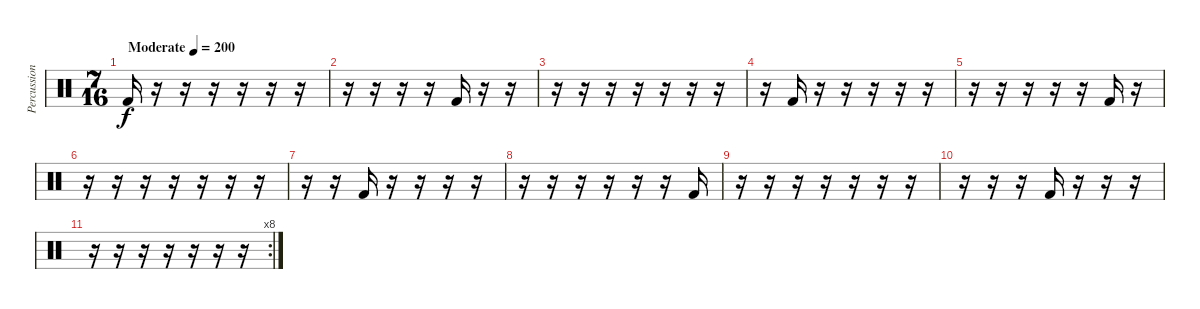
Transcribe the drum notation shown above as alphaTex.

\track ("Percussion" "Percussion") {instrument percussion}
\staff {score}
\articulation defaults
\ts (7 16)
\tempo (200 "Moderate")
\clef neutral
\ks c "Kick (hit) 2".16{dy f}
r.16 r.16 r.16 r.16 r.16 r.16 |
r.16 r.16 r.16 r.16 "Kick (hit) 2".16 r.16 r.16 |
r.16 r.16 r.16 r.16 r.16 r.16 r.16 |
r.16 "Kick (hit) 2".16 r.16 r.16 r.16 r.16 r.16 |
r.16 r.16 r.16 r.16 r.16 "Kick (hit) 2".16 r.16 |
r.16 r.16 r.16 r.16 r.16 r.16 r.16 |
r.16 r.16 "Kick (hit) 2".16 r.16 r.16 r.16 r.16 |
r.16 r.16 r.16 r.16 r.16 r.16 "Kick (hit) 2".16 |
r.16 r.16 r.16 r.16 r.16 r.16 r.16 |
r.16 r.16 r.16 "Kick (hit) 2".16 r.16 r.16 r.16 |
\rc 8
r.16 r.16 r.16 r.16 r.16 r.16 r.16
